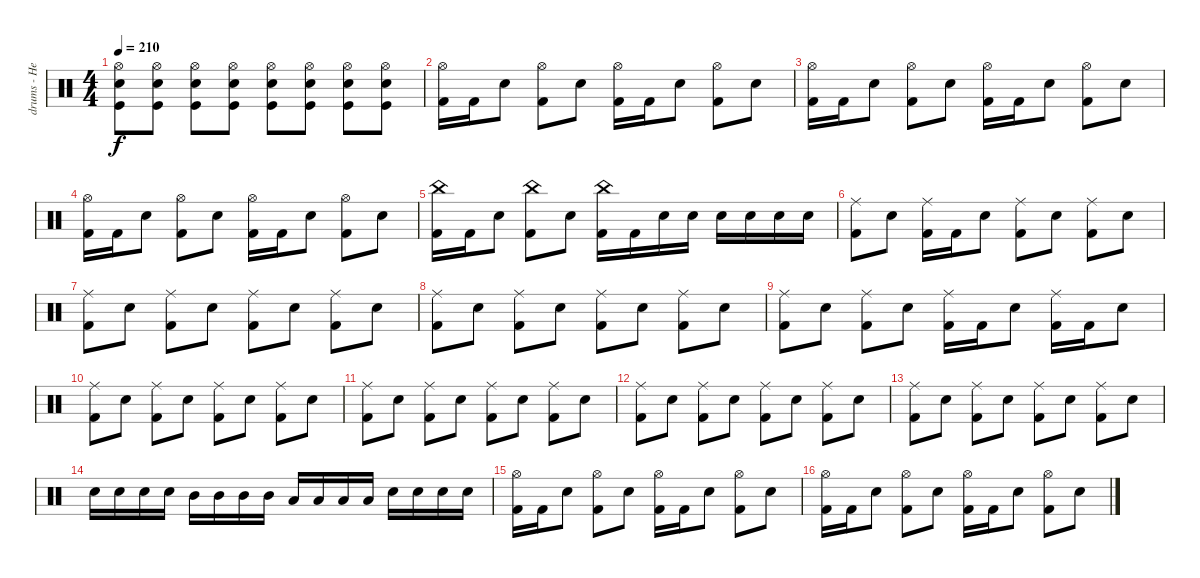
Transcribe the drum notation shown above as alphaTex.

\track ("drums - Heikki" "drums - He") {instrument percussion}
\staff {score}
\articulation defaults
\ts (4 4)
\tempo 210
\clef neutral
\ks c
("Hi-Hat (open)" "Snare (hit) 2" "Kick (hit)").8{dy f} ("Hi-Hat (open)" "Snare (hit) 2" "Kick (hit)").8 ("Hi-Hat (open)" "Snare (hit) 2" "Kick (hit)").8 ("Hi-Hat (open)" "Snare (hit) 2" "Kick (hit)").8 ("Hi-Hat (open)" "Snare (hit) 2" "Kick (hit)").8 ("Hi-Hat (open)" "Snare (hit) 2" "Kick (hit)").8 ("Hi-Hat (open)" "Snare (hit) 2" "Kick (hit)").8 ("Hi-Hat (open)" "Snare (hit) 2" "Kick (hit)").8 |
("Hi-Hat (open)" "Kick (hit) 2").16 "Kick (hit) 2".16 "Snare (hit) 2".8 ("Hi-Hat (open)" "Kick (hit) 2").8 "Snare (hit) 2".8 ("Hi-Hat (open)" "Kick (hit) 2").16 "Kick (hit) 2".16 "Snare (hit) 2".8 ("Hi-Hat (open)" "Kick (hit) 2").8 "Snare (hit) 2".8 |
("Hi-Hat (open)" "Kick (hit) 2").16 "Kick (hit) 2".16 "Snare (hit) 2".8 ("Hi-Hat (open)" "Kick (hit) 2").8 "Snare (hit) 2".8 ("Hi-Hat (open)" "Kick (hit) 2").16 "Kick (hit) 2".16 "Snare (hit) 2".8 ("Hi-Hat (open)" "Kick (hit) 2").8 "Snare (hit) 2".8 |
("Hi-Hat (open)" "Kick (hit) 2").16 "Kick (hit) 2".16 "Snare (hit) 2".8 ("Hi-Hat (open)" "Kick (hit) 2").8 "Snare (hit) 2".8 ("Hi-Hat (open)" "Kick (hit) 2").16 "Kick (hit) 2".16 "Snare (hit) 2".8 ("Hi-Hat (open)" "Kick (hit) 2").8 "Snare (hit) 2".8 |
("China (hit)" "Kick (hit) 2").16 "Kick (hit) 2".16 "Snare (hit) 2".8 ("China (hit)" "Kick (hit) 2").8 "Snare (hit) 2".8 ("China (hit)" "Kick (hit) 2").16 "Kick (hit) 2".16 "Snare (hit) 2".16 "Snare (hit) 2".16 "Snare (hit) 2".16 "Snare (hit) 2".16 "Snare (hit) 2".16 "Snare (hit) 2".16 |
("Ride (middle)" "Kick (hit) 2").8 "Snare (hit) 2".8 ("Ride (middle)" "Kick (hit) 2").16 "Kick (hit) 2".16 "Snare (hit) 2".8 ("Ride (middle)" "Kick (hit) 2").8 "Snare (hit) 2".8 ("Ride (middle)" "Kick (hit) 2").8 "Snare (hit) 2".8 |
("Ride (middle)" "Kick (hit) 2").8 "Snare (hit) 2".8 ("Ride (middle)" "Kick (hit) 2").8 "Snare (hit) 2".8 ("Ride (middle)" "Kick (hit) 2").8 "Snare (hit) 2".8 ("Ride (middle)" "Kick (hit) 2").8 "Snare (hit) 2".8 |
("Ride (middle)" "Kick (hit) 2").8 "Snare (hit) 2".8 ("Ride (middle)" "Kick (hit) 2").8 "Snare (hit) 2".8 ("Ride (middle)" "Kick (hit) 2").8 "Snare (hit) 2".8 ("Ride (middle)" "Kick (hit) 2").8 "Snare (hit) 2".8 |
("Ride (middle)" "Kick (hit) 2").8 "Snare (hit) 2".8 ("Ride (middle)" "Kick (hit) 2").8 "Snare (hit) 2".8 ("Ride (middle)" "Kick (hit) 2").16 "Kick (hit) 2".16 "Snare (hit) 2".8 ("Ride (middle)" "Kick (hit) 2").16 "Kick (hit) 2".16 "Snare (hit) 2".8 |
("Ride (middle)" "Kick (hit) 2").8 "Snare (hit) 2".8 ("Ride (middle)" "Kick (hit) 2").8 "Snare (hit) 2".8 ("Ride (middle)" "Kick (hit) 2").8 "Snare (hit) 2".8 ("Ride (middle)" "Kick (hit) 2").8 "Snare (hit) 2".8 |
("Ride (middle)" "Kick (hit) 2").8 "Snare (hit) 2".8 ("Ride (middle)" "Kick (hit) 2").8 "Snare (hit) 2".8 ("Ride (middle)" "Kick (hit) 2").8 "Snare (hit) 2".8 ("Ride (middle)" "Kick (hit) 2").8 "Snare (hit) 2".8 |
("Ride (middle)" "Kick (hit) 2").8 "Snare (hit) 2".8 ("Ride (middle)" "Kick (hit) 2").8 "Snare (hit) 2".8 ("Ride (middle)" "Kick (hit) 2").8 "Snare (hit) 2".8 ("Ride (middle)" "Kick (hit) 2").8 "Snare (hit) 2".8 |
("Ride (middle)" "Kick (hit) 2").8 "Snare (hit) 2".8 ("Ride (middle)" "Kick (hit) 2").8 "Snare (hit) 2".8 ("Ride (middle)" "Kick (hit) 2").8 "Snare (hit) 2".8 ("Ride (middle)" "Kick (hit) 2").8 "Snare (hit) 2".8 |
"Snare (hit) 2".16 "Snare (hit) 2".16 "Snare (hit) 2".16 "Snare (hit) 2".16 "Mid Tom (hit)".16 "Mid Tom (hit)".16 "Mid Tom (hit)".16 "Mid Tom (hit)".16 "Low Tom (hit)".16 "Low Tom (hit)".16 "Low Tom (hit)".16 "Low Tom (hit)".16 "Snare (hit) 2".16 "Snare (hit) 2".16 "Snare (hit) 2".16 "Snare (hit) 2".16 |
("Hi-Hat (open)" "Kick (hit) 2").16 "Kick (hit) 2".16 "Snare (hit) 2".8 ("Hi-Hat (open)" "Kick (hit) 2").8 "Snare (hit) 2".8 ("Hi-Hat (open)" "Kick (hit) 2").16 "Kick (hit) 2".16 "Snare (hit) 2".8 ("Hi-Hat (open)" "Kick (hit) 2").8 "Snare (hit) 2".8 |
("Hi-Hat (open)" "Kick (hit) 2").16 "Kick (hit) 2".16 "Snare (hit) 2".8 ("Hi-Hat (open)" "Kick (hit) 2").8 "Snare (hit) 2".8 ("Hi-Hat (open)" "Kick (hit) 2").16 "Kick (hit) 2".16 "Snare (hit) 2".8 ("Hi-Hat (open)" "Kick (hit) 2").8 "Snare (hit) 2".8
